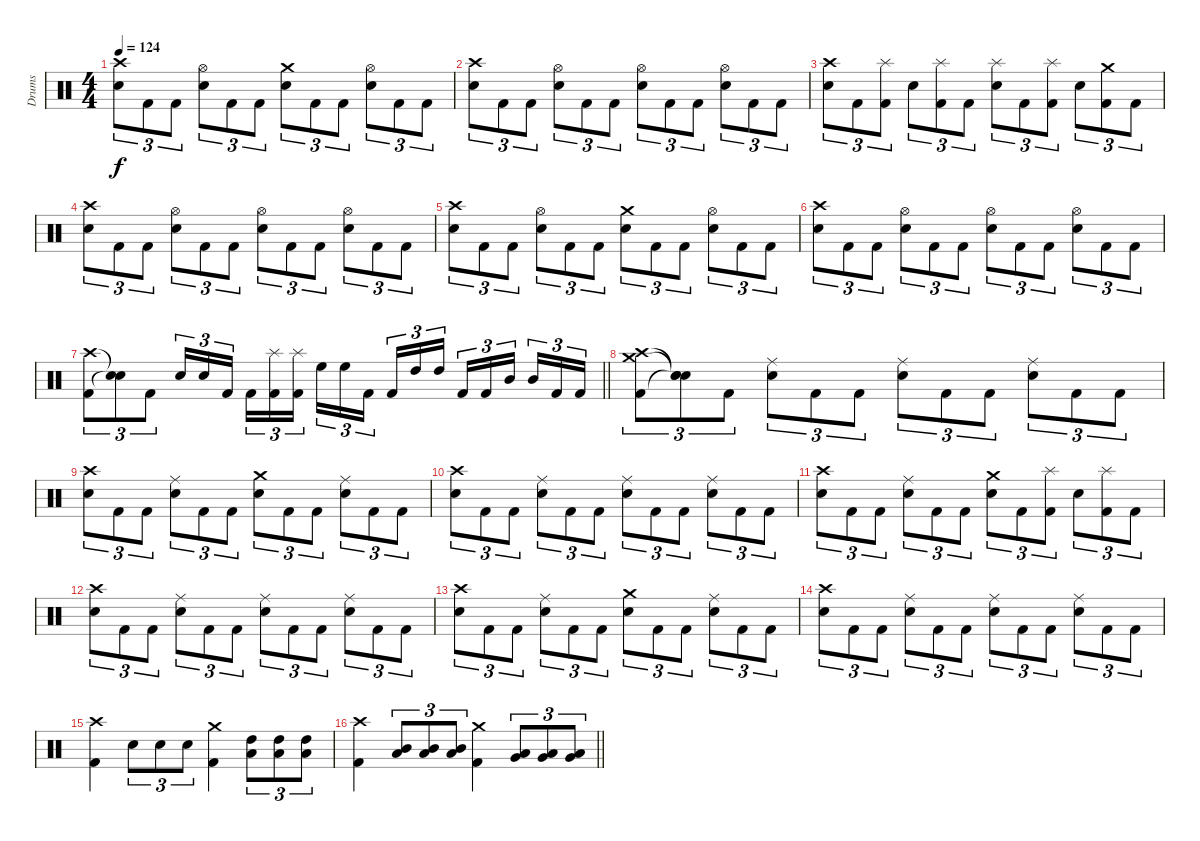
\track ("Drums" "Drums") {instrument percussion}
\staff {score}
\articulation defaults
\ts (4 4)
\tempo 124
\clef neutral
\ks c
("Crash high (hit)" "Electric Snare (hit)").8{tu (3 2) dy f} "Kick (hit) 2".8{tu (3 2)} "Kick (hit) 2".8{tu (3 2)} ("Hi-Hat (open)" "Electric Snare (hit)").8{tu (3 2)} "Kick (hit) 2".8{tu (3 2)} "Kick (hit) 2".8{tu (3 2)} ("Crash medium (hit)" "Electric Snare (hit)").8{tu (3 2)} "Kick (hit) 2".8{tu (3 2)} "Kick (hit) 2".8{tu (3 2)} ("Hi-Hat (open)" "Electric Snare (hit)").8{tu (3 2)} "Kick (hit) 2".8{tu (3 2)} "Kick (hit) 2".8{tu (3 2)} |
("Crash high (hit)" "Electric Snare (hit)").8{tu (3 2)} "Kick (hit) 2".8{tu (3 2)} "Kick (hit) 2".8{tu (3 2)} ("Hi-Hat (open)" "Electric Snare (hit)").8{tu (3 2)} "Kick (hit) 2".8{tu (3 2)} "Kick (hit) 2".8{tu (3 2)} ("Hi-Hat (open)" "Electric Snare (hit)").8{tu (3 2)} "Kick (hit) 2".8{tu (3 2)} "Kick (hit) 2".8{tu (3 2)} ("Hi-Hat (open)" "Electric Snare (hit)").8{tu (3 2)} "Kick (hit) 2".8{tu (3 2)} "Kick (hit) 2".8{tu (3 2)} |
("Crash high (hit)" "Electric Snare (hit)").8{tu (3 2)} "Kick (hit) 2".8{tu (3 2)} ("Splash (hit)" "Kick (hit) 2").8{tu (3 2)} "Electric Snare (hit)".8{tu (3 2)} ("Splash (hit)" "Kick (hit) 2").8{tu (3 2)} "Kick (hit) 2".8{tu (3 2)} ("Splash (hit)" "Electric Snare (hit)").8{tu (3 2)} "Kick (hit) 2".8{tu (3 2)} ("Splash (hit)" "Kick (hit) 2").8{tu (3 2)} "Electric Snare (hit)".8{tu (3 2)} ("Crash medium (hit)" "Kick (hit) 2").8{tu (3 2)} "Kick (hit) 2".8{tu (3 2)} |
("Crash high (hit)" "Electric Snare (hit)").8{tu (3 2)} "Kick (hit) 2".8{tu (3 2)} "Kick (hit) 2".8{tu (3 2)} ("Hi-Hat (open)" "Electric Snare (hit)").8{tu (3 2)} "Kick (hit) 2".8{tu (3 2)} "Kick (hit) 2".8{tu (3 2)} ("Hi-Hat (open)" "Electric Snare (hit)").8{tu (3 2)} "Kick (hit) 2".8{tu (3 2)} "Kick (hit) 2".8{tu (3 2)} ("Hi-Hat (open)" "Electric Snare (hit)").8{tu (3 2)} "Kick (hit) 2".8{tu (3 2)} "Kick (hit) 2".8{tu (3 2)} |
("Crash high (hit)" "Electric Snare (hit)").8{tu (3 2)} "Kick (hit) 2".8{tu (3 2)} "Kick (hit) 2".8{tu (3 2)} ("Hi-Hat (open)" "Electric Snare (hit)").8{tu (3 2)} "Kick (hit) 2".8{tu (3 2)} "Kick (hit) 2".8{tu (3 2)} ("Crash medium (hit)" "Electric Snare (hit)").8{tu (3 2)} "Kick (hit) 2".8{tu (3 2)} "Kick (hit) 2".8{tu (3 2)} ("Hi-Hat (open)" "Electric Snare (hit)").8{tu (3 2)} "Kick (hit) 2".8{tu (3 2)} "Kick (hit) 2".8{tu (3 2)} |
("Crash high (hit)" "Electric Snare (hit)").8{tu (3 2)} "Kick (hit) 2".8{tu (3 2)} "Kick (hit) 2".8{tu (3 2)} ("Hi-Hat (open)" "Electric Snare (hit)").8{tu (3 2)} "Kick (hit) 2".8{tu (3 2)} "Kick (hit) 2".8{tu (3 2)} ("Hi-Hat (open)" "Electric Snare (hit)").8{tu (3 2)} "Kick (hit) 2".8{tu (3 2)} "Kick (hit) 2".8{tu (3 2)} ("Hi-Hat (open)" "Electric Snare (hit)").8{tu (3 2)} "Kick (hit) 2".8{tu (3 2)} "Kick (hit) 2".8{tu (3 2)} |
\barLineRight lightlight
("Crash high (hit)" "Kick (hit) 2").8{tu (3 2)} ("Snare (hit)"{t} "Snare (hit)"{t}).8{tu (3 2)} "Kick (hit) 2".8{tu (3 2)} "Electric Snare (hit)".16{tu (3 2)} "Electric Snare (hit)".16{tu (3 2)} "Kick (hit) 2".16{tu (3 2)} "Kick (hit) 2".16{tu (3 2)} ("Splash (hit)" "Kick (hit) 2").16{tu (3 2)} ("Splash (hit)" "Kick (hit) 2").16{tu (3 2)} "High Floor Tom (hit)".16{tu (3 2)} "High Floor Tom (hit)".16{tu (3 2)} "Kick (hit) 2".16{tu (3 2)} "Kick (hit) 2".16{tu (3 2)} "High Tom (hit)".16{tu (3 2)} "High Tom (hit)".16{tu (3 2)} "Kick (hit) 2".16{tu (3 2)} "Kick (hit) 2".16{tu (3 2)} "Mid Tom (hit)".16{tu (3 2)} "Mid Tom (hit)".16{tu (3 2)} "Kick (hit) 2".16{tu (3 2)} "Kick (hit) 2".16{tu (3 2)} |
("Crash high (hit)" "Crash medium (hit)" "Kick (hit) 2").8{tu (3 2)} ("Snare (hit)"{t} "Snare (hit)"{t} "Snare (hit)"{t}).8{tu (3 2)} "Kick (hit) 2".8{tu (3 2)} ("Ride (middle)" "Electric Snare (hit)").8{tu (3 2)} "Kick (hit) 2".8{tu (3 2)} "Kick (hit) 2".8{tu (3 2)} ("Ride (middle)" "Electric Snare (hit)").8{tu (3 2)} "Kick (hit) 2".8{tu (3 2)} "Kick (hit) 2".8{tu (3 2)} ("Ride (middle)" "Electric Snare (hit)").8{tu (3 2)} "Kick (hit) 2".8{tu (3 2)} "Kick (hit) 2".8{tu (3 2)} |
("Crash high (hit)" "Electric Snare (hit)").8{tu (3 2)} "Kick (hit) 2".8{tu (3 2)} "Kick (hit) 2".8{tu (3 2)} ("Ride (middle)" "Electric Snare (hit)").8{tu (3 2)} "Kick (hit) 2".8{tu (3 2)} "Kick (hit) 2".8{tu (3 2)} ("Crash medium (hit)" "Electric Snare (hit)").8{tu (3 2)} "Kick (hit) 2".8{tu (3 2)} "Kick (hit) 2".8{tu (3 2)} ("Ride (middle)" "Electric Snare (hit)").8{tu (3 2)} "Kick (hit) 2".8{tu (3 2)} "Kick (hit) 2".8{tu (3 2)} |
("Crash high (hit)" "Electric Snare (hit)").8{tu (3 2)} "Kick (hit) 2".8{tu (3 2)} "Kick (hit) 2".8{tu (3 2)} ("Ride (middle)" "Electric Snare (hit)").8{tu (3 2)} "Kick (hit) 2".8{tu (3 2)} "Kick (hit) 2".8{tu (3 2)} ("Ride (middle)" "Electric Snare (hit)").8{tu (3 2)} "Kick (hit) 2".8{tu (3 2)} "Kick (hit) 2".8{tu (3 2)} ("Ride (middle)" "Electric Snare (hit)").8{tu (3 2)} "Kick (hit) 2".8{tu (3 2)} "Kick (hit) 2".8{tu (3 2)} |
("Crash high (hit)" "Electric Snare (hit)").8{tu (3 2)} "Kick (hit) 2".8{tu (3 2)} "Kick (hit) 2".8{tu (3 2)} ("Ride (middle)" "Electric Snare (hit)").8{tu (3 2)} "Kick (hit) 2".8{tu (3 2)} "Kick (hit) 2".8{tu (3 2)} ("Crash medium (hit)" "Electric Snare (hit)").8{tu (3 2)} "Kick (hit) 2".8{tu (3 2)} ("Splash (hit)" "Kick (hit) 2").8{tu (3 2)} "Electric Snare (hit)".8{tu (3 2)} ("Splash (hit)" "Kick (hit) 2").8{tu (3 2)} "Kick (hit) 2".8{tu (3 2)} |
("Crash high (hit)" "Electric Snare (hit)").8{tu (3 2)} "Kick (hit) 2".8{tu (3 2)} "Kick (hit) 2".8{tu (3 2)} ("Ride (middle)" "Electric Snare (hit)").8{tu (3 2)} "Kick (hit) 2".8{tu (3 2)} "Kick (hit) 2".8{tu (3 2)} ("Ride (middle)" "Electric Snare (hit)").8{tu (3 2)} "Kick (hit) 2".8{tu (3 2)} "Kick (hit) 2".8{tu (3 2)} ("Ride (middle)" "Electric Snare (hit)").8{tu (3 2)} "Kick (hit) 2".8{tu (3 2)} "Kick (hit) 2".8{tu (3 2)} |
("Crash high (hit)" "Electric Snare (hit)").8{tu (3 2)} "Kick (hit) 2".8{tu (3 2)} "Kick (hit) 2".8{tu (3 2)} ("Ride (middle)" "Electric Snare (hit)").8{tu (3 2)} "Kick (hit) 2".8{tu (3 2)} "Kick (hit) 2".8{tu (3 2)} ("Crash medium (hit)" "Electric Snare (hit)").8{tu (3 2)} "Kick (hit) 2".8{tu (3 2)} "Kick (hit) 2".8{tu (3 2)} ("Ride (middle)" "Electric Snare (hit)").8{tu (3 2)} "Kick (hit) 2".8{tu (3 2)} "Kick (hit) 2".8{tu (3 2)} |
("Crash high (hit)" "Electric Snare (hit)").8{tu (3 2)} "Kick (hit) 2".8{tu (3 2)} "Kick (hit) 2".8{tu (3 2)} ("Ride (middle)" "Electric Snare (hit)").8{tu (3 2)} "Kick (hit) 2".8{tu (3 2)} "Kick (hit) 2".8{tu (3 2)} ("Ride (middle)" "Electric Snare (hit)").8{tu (3 2)} "Kick (hit) 2".8{tu (3 2)} "Kick (hit) 2".8{tu (3 2)} ("Ride (middle)" "Electric Snare (hit)").8{tu (3 2)} "Kick (hit) 2".8{tu (3 2)} "Kick (hit) 2".8{tu (3 2)} |
("Crash high (hit)" "Kick (hit) 2").4 "Electric Snare (hit)".8{tu (3 2)} "Electric Snare (hit)".8{tu (3 2)} "Electric Snare (hit)".8{tu (3 2)} ("Crash medium (hit)" "Kick (hit) 2").4 ("High Tom (hit)" "Low Tom (hit)").8{tu (3 2)} ("High Tom (hit)" "Low Tom (hit)").8{tu (3 2)} ("High Tom (hit)" "Low Tom (hit)").8{tu (3 2)} |
\barLineRight lightlight
("Crash high (hit)" "Kick (hit) 2").4 ("Mid Tom (hit)" "Low Tom (hit)").8{tu (3 2)} ("Mid Tom (hit)" "Low Tom (hit)").8{tu (3 2)} ("Mid Tom (hit)" "Low Tom (hit)").8{tu (3 2)} ("Crash medium (hit)" "Kick (hit) 2").4 ("Low Tom (hit)" "Very Low Tom (hit)").8{tu (3 2)} ("Low Tom (hit)" "Very Low Tom (hit)").8{tu (3 2)} ("Low Tom (hit)" "Very Low Tom (hit)").8{tu (3 2)}
